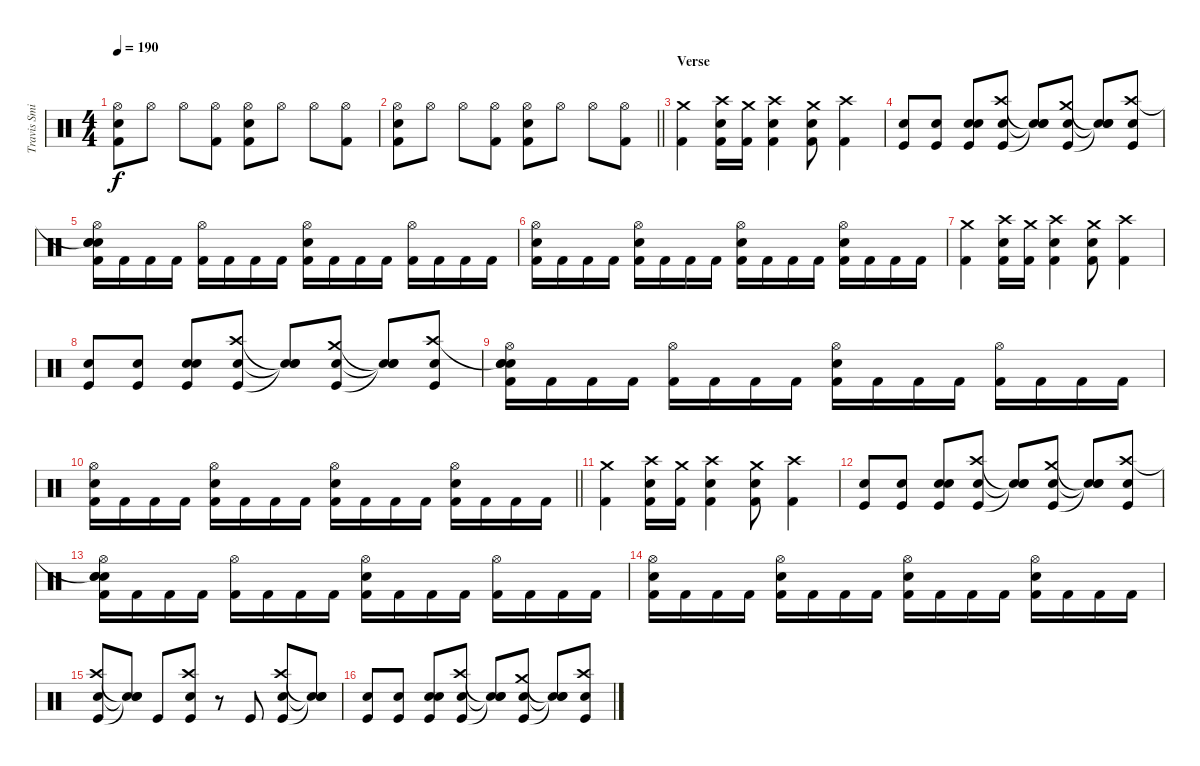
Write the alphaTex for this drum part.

\track ("Travis Smith" "Travis Smi") {instrument percussion}
\staff {score}
\articulation defaults
\ts (4 4)
\tempo 190
\clef neutral
\ks c
("Hi-Hat (open)" "Electric Snare (hit)" "Kick (hit) 2").8{dy f} "Hi-Hat (open)".8 "Hi-Hat (open)".8 ("Hi-Hat (open)" "Kick (hit) 2").8 ("Hi-Hat (open)" "Electric Snare (hit)" "Kick (hit) 2").8 "Hi-Hat (open)".8 "Hi-Hat (open)".8 ("Hi-Hat (open)" "Kick (hit) 2").8 |
\barLineRight lightlight
("Hi-Hat (open)" "Electric Snare (hit)" "Kick (hit) 2").8 "Hi-Hat (open)".8 "Hi-Hat (open)".8 ("Hi-Hat (open)" "Kick (hit) 2").8 ("Hi-Hat (open)" "Electric Snare (hit)" "Kick (hit) 2").8 "Hi-Hat (open)".8 "Hi-Hat (open)".8 ("Hi-Hat (open)" "Kick (hit) 2").8 |
\section ("" "Verse")
("Crash medium (hit)" "Kick (hit) 2").4 ("Crash high (hit)" "Electric Snare (hit)" "Kick (hit) 2").16 ("Crash medium (hit)" "Kick (hit) 2").16 ("Crash high (hit)" "Electric Snare (hit)" "Kick (hit) 2").4 ("Crash medium (hit)" "Electric Snare (hit)" "Kick (hit) 2").8 ("Crash high (hit)" "Kick (hit) 2").4 |
("Snare (hit) 2" "Kick (hit)").8 ("Snare (hit) 2" "Kick (hit)").8 ("Electric Snare (hit)" "Snare (hit) 2" "Kick (hit)").8 ("Crash high (hit)" "Electric Snare (hit)" "Kick (hit)").8 ("Snare (hit)"{t} "Snare (hit)"{t} "Snare (hit)"{t}).8 ("Crash medium (hit)" "Electric Snare (hit)" "Kick (hit)").8 ("Snare (hit)"{t} "Snare (hit)"{t} "Snare (hit)"{t}).8 ("Crash high (hit)" "Electric Snare (hit)" "Kick (hit)").8 |
("Snare (hit)"{t} "Hi-Hat (open)" "Electric Snare (hit)" "Snare (hit)" "Kick (hit) 2").16 "Kick (hit) 2".16 "Kick (hit) 2".16 "Kick (hit) 2".16 ("Hi-Hat (open)" "Kick (hit) 2").16 "Kick (hit) 2".16 "Kick (hit) 2".16 "Kick (hit) 2".16 ("Hi-Hat (open)" "Electric Snare (hit)" "Kick (hit) 2").16 "Kick (hit) 2".16 "Kick (hit) 2".16 "Kick (hit) 2".16 ("Hi-Hat (open)" "Kick (hit) 2").16 "Kick (hit) 2".16 "Kick (hit) 2".16 "Kick (hit) 2".16 |
("Hi-Hat (open)" "Electric Snare (hit)" "Kick (hit) 2").16 "Kick (hit) 2".16 "Kick (hit) 2".16 "Kick (hit) 2".16 ("Hi-Hat (open)" "Electric Snare (hit)" "Kick (hit) 2").16 "Kick (hit) 2".16 "Kick (hit) 2".16 "Kick (hit) 2".16 ("Hi-Hat (open)" "Electric Snare (hit)" "Kick (hit) 2").16 "Kick (hit) 2".16 "Kick (hit) 2".16 "Kick (hit) 2".16 ("Hi-Hat (open)" "Electric Snare (hit)" "Kick (hit) 2").16 "Kick (hit) 2".16 "Kick (hit) 2".16 "Kick (hit) 2".16 |
("Crash medium (hit)" "Kick (hit) 2").4 ("Crash high (hit)" "Electric Snare (hit)" "Kick (hit) 2").16 ("Crash medium (hit)" "Kick (hit) 2").16 ("Crash high (hit)" "Electric Snare (hit)" "Kick (hit) 2").4 ("Crash medium (hit)" "Electric Snare (hit)" "Kick (hit) 2").8 ("Crash high (hit)" "Kick (hit) 2").4 |
("Snare (hit) 2" "Kick (hit)").8 ("Snare (hit) 2" "Kick (hit)").8 ("Electric Snare (hit)" "Snare (hit) 2" "Kick (hit)").8 ("Crash high (hit)" "Electric Snare (hit)" "Kick (hit)").8 ("Snare (hit)"{t} "Snare (hit)"{t} "Snare (hit)"{t}).8 ("Crash medium (hit)" "Electric Snare (hit)" "Kick (hit)").8 ("Snare (hit)"{t} "Snare (hit)"{t} "Snare (hit)"{t}).8 ("Crash high (hit)" "Electric Snare (hit)" "Kick (hit)").8 |
("Snare (hit)"{t} "Hi-Hat (open)" "Electric Snare (hit)" "Snare (hit)" "Kick (hit) 2").16 "Kick (hit) 2".16 "Kick (hit) 2".16 "Kick (hit) 2".16 ("Hi-Hat (open)" "Kick (hit) 2").16 "Kick (hit) 2".16 "Kick (hit) 2".16 "Kick (hit) 2".16 ("Hi-Hat (open)" "Electric Snare (hit)" "Kick (hit) 2").16 "Kick (hit) 2".16 "Kick (hit) 2".16 "Kick (hit) 2".16 ("Hi-Hat (open)" "Kick (hit) 2").16 "Kick (hit) 2".16 "Kick (hit) 2".16 "Kick (hit) 2".16 |
\barLineRight lightlight
("Hi-Hat (open)" "Electric Snare (hit)" "Kick (hit) 2").16 "Kick (hit) 2".16 "Kick (hit) 2".16 "Kick (hit) 2".16 ("Hi-Hat (open)" "Electric Snare (hit)" "Kick (hit) 2").16 "Kick (hit) 2".16 "Kick (hit) 2".16 "Kick (hit) 2".16 ("Hi-Hat (open)" "Electric Snare (hit)" "Kick (hit) 2").16 "Kick (hit) 2".16 "Kick (hit) 2".16 "Kick (hit) 2".16 ("Hi-Hat (open)" "Electric Snare (hit)" "Kick (hit) 2").16 "Kick (hit) 2".16 "Kick (hit) 2".16 "Kick (hit) 2".16 |
("Crash medium (hit)" "Kick (hit) 2").4 ("Crash high (hit)" "Electric Snare (hit)" "Kick (hit) 2").16 ("Crash medium (hit)" "Kick (hit) 2").16 ("Crash high (hit)" "Electric Snare (hit)" "Kick (hit) 2").4 ("Crash medium (hit)" "Electric Snare (hit)" "Kick (hit) 2").8 ("Crash high (hit)" "Kick (hit) 2").4 |
("Snare (hit) 2" "Kick (hit)").8 ("Snare (hit) 2" "Kick (hit)").8 ("Electric Snare (hit)" "Snare (hit) 2" "Kick (hit)").8 ("Crash high (hit)" "Electric Snare (hit)" "Kick (hit)").8 ("Snare (hit)"{t} "Snare (hit)"{t} "Snare (hit)"{t}).8 ("Crash medium (hit)" "Electric Snare (hit)" "Kick (hit)").8 ("Snare (hit)"{t} "Snare (hit)"{t} "Snare (hit)"{t}).8 ("Crash high (hit)" "Electric Snare (hit)" "Kick (hit)").8 |
("Snare (hit)"{t} "Hi-Hat (open)" "Electric Snare (hit)" "Snare (hit)" "Kick (hit) 2").16 "Kick (hit) 2".16 "Kick (hit) 2".16 "Kick (hit) 2".16 ("Hi-Hat (open)" "Kick (hit) 2").16 "Kick (hit) 2".16 "Kick (hit) 2".16 "Kick (hit) 2".16 ("Hi-Hat (open)" "Electric Snare (hit)" "Kick (hit) 2").16 "Kick (hit) 2".16 "Kick (hit) 2".16 "Kick (hit) 2".16 ("Hi-Hat (open)" "Kick (hit) 2").16 "Kick (hit) 2".16 "Kick (hit) 2".16 "Kick (hit) 2".16 |
("Hi-Hat (open)" "Electric Snare (hit)" "Kick (hit) 2").16 "Kick (hit) 2".16 "Kick (hit) 2".16 "Kick (hit) 2".16 ("Hi-Hat (open)" "Electric Snare (hit)" "Kick (hit) 2").16 "Kick (hit) 2".16 "Kick (hit) 2".16 "Kick (hit) 2".16 ("Hi-Hat (open)" "Electric Snare (hit)" "Kick (hit) 2").16 "Kick (hit) 2".16 "Kick (hit) 2".16 "Kick (hit) 2".16 ("Hi-Hat (open)" "Electric Snare (hit)" "Kick (hit) 2").16 "Kick (hit) 2".16 "Kick (hit) 2".16 "Kick (hit) 2".16 |
("Crash high (hit)" "Electric Snare (hit)" "Kick (hit)").8 ("Snare (hit)"{t} "Snare (hit)"{t} "Snare (hit)"{t}).8 "Kick (hit)".8 ("Crash high (hit)" "Electric Snare (hit)" "Kick (hit)").8 r.8 "Kick (hit)".8 ("Crash high (hit)" "Electric Snare (hit)" "Kick (hit)").8 ("Snare (hit)"{t} "Snare (hit)"{t} "Snare (hit)"{t}).8 |
("Snare (hit) 2" "Kick (hit)").8 ("Snare (hit) 2" "Kick (hit)").8 ("Electric Snare (hit)" "Snare (hit) 2" "Kick (hit)").8 ("Crash high (hit)" "Electric Snare (hit)" "Kick (hit)").8 ("Snare (hit)"{t} "Snare (hit)"{t} "Snare (hit)"{t}).8 ("Crash medium (hit)" "Electric Snare (hit)" "Kick (hit)").8 ("Snare (hit)"{t} "Snare (hit)"{t} "Snare (hit)"{t}).8 ("Crash high (hit)" "Electric Snare (hit)" "Kick (hit)").8
